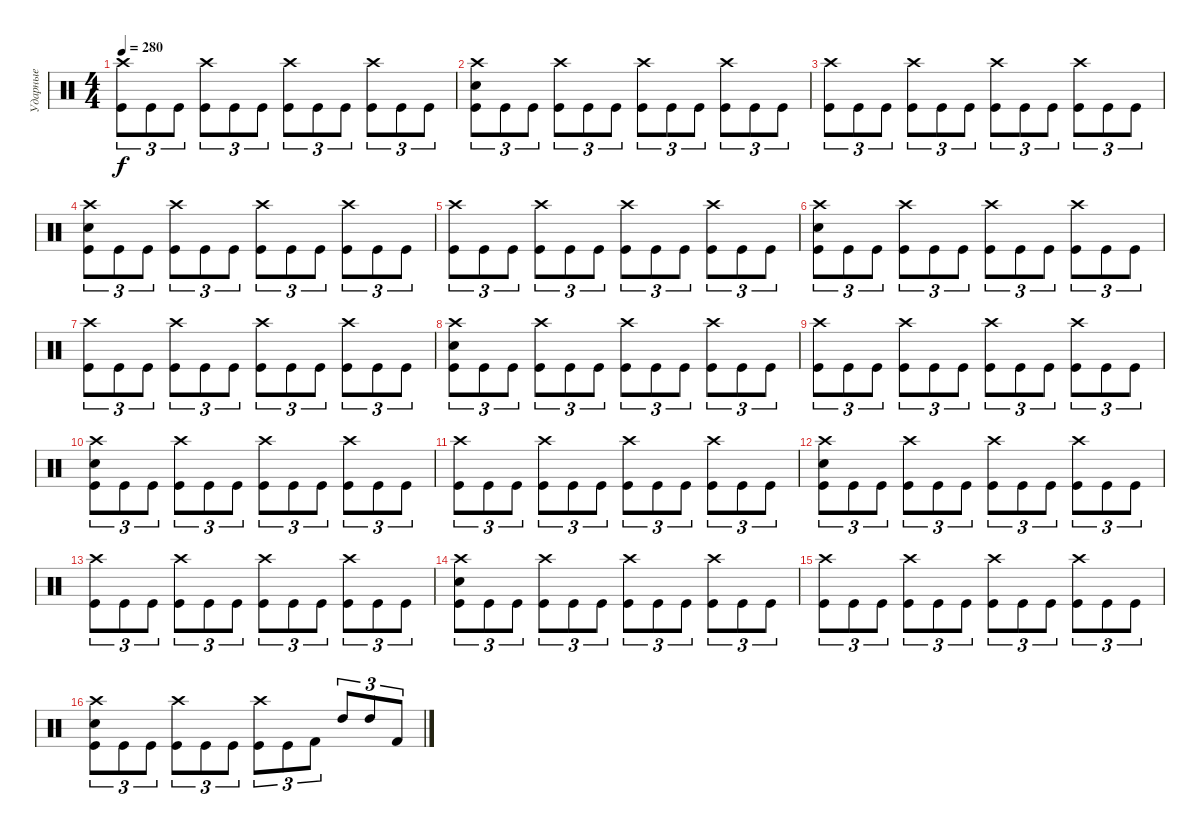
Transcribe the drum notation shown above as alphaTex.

\track ("Ударные" "Ударные") {instrument percussion}
\staff {score}
\articulation defaults
\ts (4 4)
\tempo 280
\clef neutral
\ks c
("Crash high (hit)" "Kick (hit)").8{tu (3 2) dy f} "Kick (hit)".8{tu (3 2)} "Kick (hit)".8{tu (3 2)} ("Crash high (hit)" "Kick (hit)").8{tu (3 2)} "Kick (hit)".8{tu (3 2)} "Kick (hit)".8{tu (3 2)} ("Crash high (hit)" "Kick (hit)").8{tu (3 2)} "Kick (hit)".8{tu (3 2)} "Kick (hit)".8{tu (3 2)} ("Crash high (hit)" "Kick (hit)").8{tu (3 2)} "Kick (hit)".8{tu (3 2)} "Kick (hit)".8{tu (3 2)} |
("Crash high (hit)" "Snare (hit) 2" "Kick (hit)").8{tu (3 2)} "Kick (hit)".8{tu (3 2)} "Kick (hit)".8{tu (3 2)} ("Crash high (hit)" "Kick (hit)").8{tu (3 2)} "Kick (hit)".8{tu (3 2)} "Kick (hit)".8{tu (3 2)} ("Crash high (hit)" "Kick (hit)").8{tu (3 2)} "Kick (hit)".8{tu (3 2)} "Kick (hit)".8{tu (3 2)} ("Crash high (hit)" "Kick (hit)").8{tu (3 2)} "Kick (hit)".8{tu (3 2)} "Kick (hit)".8{tu (3 2)} |
("Crash high (hit)" "Kick (hit)").8{tu (3 2)} "Kick (hit)".8{tu (3 2)} "Kick (hit)".8{tu (3 2)} ("Crash high (hit)" "Kick (hit)").8{tu (3 2)} "Kick (hit)".8{tu (3 2)} "Kick (hit)".8{tu (3 2)} ("Crash high (hit)" "Kick (hit)").8{tu (3 2)} "Kick (hit)".8{tu (3 2)} "Kick (hit)".8{tu (3 2)} ("Crash high (hit)" "Kick (hit)").8{tu (3 2)} "Kick (hit)".8{tu (3 2)} "Kick (hit)".8{tu (3 2)} |
("Crash high (hit)" "Snare (hit) 2" "Kick (hit)").8{tu (3 2)} "Kick (hit)".8{tu (3 2)} "Kick (hit)".8{tu (3 2)} ("Crash high (hit)" "Kick (hit)").8{tu (3 2)} "Kick (hit)".8{tu (3 2)} "Kick (hit)".8{tu (3 2)} ("Crash high (hit)" "Kick (hit)").8{tu (3 2)} "Kick (hit)".8{tu (3 2)} "Kick (hit)".8{tu (3 2)} ("Crash high (hit)" "Kick (hit)").8{tu (3 2)} "Kick (hit)".8{tu (3 2)} "Kick (hit)".8{tu (3 2)} |
("Crash high (hit)" "Kick (hit)").8{tu (3 2)} "Kick (hit)".8{tu (3 2)} "Kick (hit)".8{tu (3 2)} ("Crash high (hit)" "Kick (hit)").8{tu (3 2)} "Kick (hit)".8{tu (3 2)} "Kick (hit)".8{tu (3 2)} ("Crash high (hit)" "Kick (hit)").8{tu (3 2)} "Kick (hit)".8{tu (3 2)} "Kick (hit)".8{tu (3 2)} ("Crash high (hit)" "Kick (hit)").8{tu (3 2)} "Kick (hit)".8{tu (3 2)} "Kick (hit)".8{tu (3 2)} |
("Crash high (hit)" "Snare (hit) 2" "Kick (hit)").8{tu (3 2)} "Kick (hit)".8{tu (3 2)} "Kick (hit)".8{tu (3 2)} ("Crash high (hit)" "Kick (hit)").8{tu (3 2)} "Kick (hit)".8{tu (3 2)} "Kick (hit)".8{tu (3 2)} ("Crash high (hit)" "Kick (hit)").8{tu (3 2)} "Kick (hit)".8{tu (3 2)} "Kick (hit)".8{tu (3 2)} ("Crash high (hit)" "Kick (hit)").8{tu (3 2)} "Kick (hit)".8{tu (3 2)} "Kick (hit)".8{tu (3 2)} |
("Crash high (hit)" "Kick (hit)").8{tu (3 2)} "Kick (hit)".8{tu (3 2)} "Kick (hit)".8{tu (3 2)} ("Crash high (hit)" "Kick (hit)").8{tu (3 2)} "Kick (hit)".8{tu (3 2)} "Kick (hit)".8{tu (3 2)} ("Crash high (hit)" "Kick (hit)").8{tu (3 2)} "Kick (hit)".8{tu (3 2)} "Kick (hit)".8{tu (3 2)} ("Crash high (hit)" "Kick (hit)").8{tu (3 2)} "Kick (hit)".8{tu (3 2)} "Kick (hit)".8{tu (3 2)} |
("Crash high (hit)" "Snare (hit) 2" "Kick (hit)").8{tu (3 2)} "Kick (hit)".8{tu (3 2)} "Kick (hit)".8{tu (3 2)} ("Crash high (hit)" "Kick (hit)").8{tu (3 2)} "Kick (hit)".8{tu (3 2)} "Kick (hit)".8{tu (3 2)} ("Crash high (hit)" "Kick (hit)").8{tu (3 2)} "Kick (hit)".8{tu (3 2)} "Kick (hit)".8{tu (3 2)} ("Crash high (hit)" "Kick (hit)").8{tu (3 2)} "Kick (hit)".8{tu (3 2)} "Kick (hit)".8{tu (3 2)} |
("Crash high (hit)" "Kick (hit)").8{tu (3 2)} "Kick (hit)".8{tu (3 2)} "Kick (hit)".8{tu (3 2)} ("Crash high (hit)" "Kick (hit)").8{tu (3 2)} "Kick (hit)".8{tu (3 2)} "Kick (hit)".8{tu (3 2)} ("Crash high (hit)" "Kick (hit)").8{tu (3 2)} "Kick (hit)".8{tu (3 2)} "Kick (hit)".8{tu (3 2)} ("Crash high (hit)" "Kick (hit)").8{tu (3 2)} "Kick (hit)".8{tu (3 2)} "Kick (hit)".8{tu (3 2)} |
("Crash high (hit)" "Snare (hit) 2" "Kick (hit)").8{tu (3 2)} "Kick (hit)".8{tu (3 2)} "Kick (hit)".8{tu (3 2)} ("Crash high (hit)" "Kick (hit)").8{tu (3 2)} "Kick (hit)".8{tu (3 2)} "Kick (hit)".8{tu (3 2)} ("Crash high (hit)" "Kick (hit)").8{tu (3 2)} "Kick (hit)".8{tu (3 2)} "Kick (hit)".8{tu (3 2)} ("Crash high (hit)" "Kick (hit)").8{tu (3 2)} "Kick (hit)".8{tu (3 2)} "Kick (hit)".8{tu (3 2)} |
("Crash high (hit)" "Kick (hit)").8{tu (3 2)} "Kick (hit)".8{tu (3 2)} "Kick (hit)".8{tu (3 2)} ("Crash high (hit)" "Kick (hit)").8{tu (3 2)} "Kick (hit)".8{tu (3 2)} "Kick (hit)".8{tu (3 2)} ("Crash high (hit)" "Kick (hit)").8{tu (3 2)} "Kick (hit)".8{tu (3 2)} "Kick (hit)".8{tu (3 2)} ("Crash high (hit)" "Kick (hit)").8{tu (3 2)} "Kick (hit)".8{tu (3 2)} "Kick (hit)".8{tu (3 2)} |
("Crash high (hit)" "Snare (hit) 2" "Kick (hit)").8{tu (3 2)} "Kick (hit)".8{tu (3 2)} "Kick (hit)".8{tu (3 2)} ("Crash high (hit)" "Kick (hit)").8{tu (3 2)} "Kick (hit)".8{tu (3 2)} "Kick (hit)".8{tu (3 2)} ("Crash high (hit)" "Kick (hit)").8{tu (3 2)} "Kick (hit)".8{tu (3 2)} "Kick (hit)".8{tu (3 2)} ("Crash high (hit)" "Kick (hit)").8{tu (3 2)} "Kick (hit)".8{tu (3 2)} "Kick (hit)".8{tu (3 2)} |
("Crash high (hit)" "Kick (hit)").8{tu (3 2)} "Kick (hit)".8{tu (3 2)} "Kick (hit)".8{tu (3 2)} ("Crash high (hit)" "Kick (hit)").8{tu (3 2)} "Kick (hit)".8{tu (3 2)} "Kick (hit)".8{tu (3 2)} ("Crash high (hit)" "Kick (hit)").8{tu (3 2)} "Kick (hit)".8{tu (3 2)} "Kick (hit)".8{tu (3 2)} ("Crash high (hit)" "Kick (hit)").8{tu (3 2)} "Kick (hit)".8{tu (3 2)} "Kick (hit)".8{tu (3 2)} |
("Crash high (hit)" "Snare (hit) 2" "Kick (hit)").8{tu (3 2)} "Kick (hit)".8{tu (3 2)} "Kick (hit)".8{tu (3 2)} ("Crash high (hit)" "Kick (hit)").8{tu (3 2)} "Kick (hit)".8{tu (3 2)} "Kick (hit)".8{tu (3 2)} ("Crash high (hit)" "Kick (hit)").8{tu (3 2)} "Kick (hit)".8{tu (3 2)} "Kick (hit)".8{tu (3 2)} ("Crash high (hit)" "Kick (hit)").8{tu (3 2)} "Kick (hit)".8{tu (3 2)} "Kick (hit)".8{tu (3 2)} |
("Crash high (hit)" "Kick (hit)").8{tu (3 2)} "Kick (hit)".8{tu (3 2)} "Kick (hit)".8{tu (3 2)} ("Crash high (hit)" "Kick (hit)").8{tu (3 2)} "Kick (hit)".8{tu (3 2)} "Kick (hit)".8{tu (3 2)} ("Crash high (hit)" "Kick (hit)").8{tu (3 2)} "Kick (hit)".8{tu (3 2)} "Kick (hit)".8{tu (3 2)} ("Crash high (hit)" "Kick (hit)").8{tu (3 2)} "Kick (hit)".8{tu (3 2)} "Kick (hit)".8{tu (3 2)} |
("Crash high (hit)" "Snare (hit) 2" "Kick (hit)").8{tu (3 2)} "Kick (hit)".8{tu (3 2)} "Kick (hit)".8{tu (3 2)} ("Crash high (hit)" "Kick (hit)").8{tu (3 2)} "Kick (hit)".8{tu (3 2)} "Kick (hit)".8{tu (3 2)} ("Crash high (hit)" "Kick (hit)").8{tu (3 2)} "Kick (hit)".8{tu (3 2)} "Kick (hit) 2".8{tu (3 2)} "High Tom (hit)".8{tu (3 2)} "High Tom (hit)".8{tu (3 2)} "Kick (hit) 2".8{tu (3 2)}
